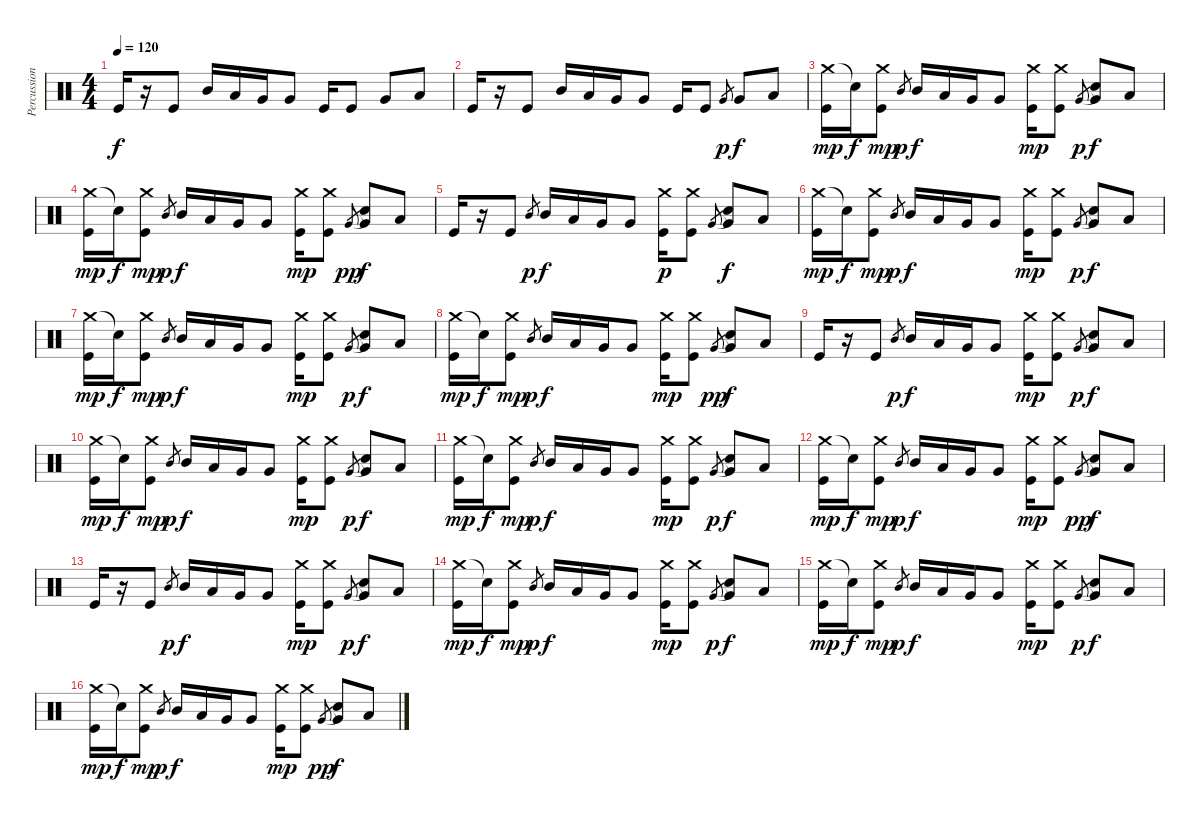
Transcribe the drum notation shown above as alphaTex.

\track ("Percussion" "Percussion") {instrument percussion}
\staff {score}
\articulation defaults
\ts (4 4)
\tempo 120
\clef neutral
\ks c "Kick (hit)".16{dy f}
r.16 "Kick (hit)".8 "Mid Tom (hit)".16 "Low Tom (hit)".16 "Very Low Tom (hit)".16 "Very Low Tom (hit)".8 "Kick (hit)".16 "Kick (hit)".8 "Very Low Tom (hit)".8 "Low Tom (hit)".8 |
"Kick (hit)".16 r.16 "Kick (hit)".8 "Mid Tom (hit)".16 "Low Tom (hit)".16 "Very Low Tom (hit)".16 "Very Low Tom (hit)".8 "Kick (hit)".16 "Kick (hit)".8 "Very Low Tom (hit)".8{gr dy p} "Very Low Tom (hit)".8{dy f} "Low Tom (hit)".8 |
("Crash medium (hit)" "Kick (hit)").16{dy mp} "Snare (hit)"{t}.16{dy f} ("Crash medium (hit)" "Kick (hit)").8{dy mp} "Mid Tom (hit)".8{gr dy p} "Mid Tom (hit)".16{dy f} "Low Tom (hit)".16 "Very Low Tom (hit)".16 "Very Low Tom (hit)".8 ("Crash medium (hit)" "Kick (hit)").16{dy mp} ("Crash medium (hit)" "Kick (hit)").8 "Very Low Tom (hit)".8{gr dy p} ("Snare (hit)"{t} "Very Low Tom (hit)").8{dy f} "Low Tom (hit)".8 |
("Crash medium (hit)" "Kick (hit)").16{dy mp} "Snare (hit)"{t}.16{dy f} ("Crash medium (hit)" "Kick (hit)").8{dy mp} "Mid Tom (hit)".8{gr dy p} "Mid Tom (hit)".16{dy f} "Low Tom (hit)".16 "Very Low Tom (hit)".16 "Very Low Tom (hit)".8 ("Crash medium (hit)" "Kick (hit)").16{dy mp} ("Crash medium (hit)" "Kick (hit)").8 "Very Low Tom (hit)".8{gr dy pp} ("Snare (hit)"{t} "Very Low Tom (hit)").8{dy f} "Low Tom (hit)".8 |
"Kick (hit)".16 r.16 "Kick (hit)".8 "Mid Tom (hit)".8{gr dy p} "Mid Tom (hit)".16{dy f} "Low Tom (hit)".16 "Very Low Tom (hit)".16 "Very Low Tom (hit)".8 ("Crash medium (hit)" "Kick (hit)").16{dy p} ("Crash medium (hit)" "Kick (hit)").8 "Very Low Tom (hit)".8{gr} ("Snare (hit)"{t} "Very Low Tom (hit)").8{dy f} "Low Tom (hit)".8 |
("Crash medium (hit)" "Kick (hit)").16{dy mp} "Snare (hit)"{t}.16{dy f} ("Crash medium (hit)" "Kick (hit)").8{dy mp} "Mid Tom (hit)".8{gr dy p} "Mid Tom (hit)".16{dy f} "Low Tom (hit)".16 "Very Low Tom (hit)".16 "Very Low Tom (hit)".8 ("Crash medium (hit)" "Kick (hit)").16{dy mp} ("Crash medium (hit)" "Kick (hit)").8 "Very Low Tom (hit)".8{gr dy p} ("Snare (hit)"{t} "Very Low Tom (hit)").8{dy f} "Low Tom (hit)".8 |
("Crash medium (hit)" "Kick (hit)").16{dy mp} "Snare (hit)"{t}.16{dy f} ("Crash medium (hit)" "Kick (hit)").8{dy mp} "Mid Tom (hit)".8{gr dy p} "Mid Tom (hit)".16{dy f} "Low Tom (hit)".16 "Very Low Tom (hit)".16 "Very Low Tom (hit)".8 ("Crash medium (hit)" "Kick (hit)").16{dy mp} ("Crash medium (hit)" "Kick (hit)").8 "Very Low Tom (hit)".8{gr dy p} ("Snare (hit)"{t} "Very Low Tom (hit)").8{dy f} "Low Tom (hit)".8 |
("Crash medium (hit)" "Kick (hit)").16{dy mp} "Snare (hit)"{t}.16{dy f} ("Crash medium (hit)" "Kick (hit)").8{dy mp} "Mid Tom (hit)".8{gr dy p} "Mid Tom (hit)".16{dy f} "Low Tom (hit)".16 "Very Low Tom (hit)".16 "Very Low Tom (hit)".8 ("Crash medium (hit)" "Kick (hit)").16{dy mp} ("Crash medium (hit)" "Kick (hit)").8 "Very Low Tom (hit)".8{gr dy pp} ("Snare (hit)"{t} "Very Low Tom (hit)").8{dy f} "Low Tom (hit)".8 |
"Kick (hit)".16 r.16 "Kick (hit)".8 "Mid Tom (hit)".8{gr dy p} "Mid Tom (hit)".16{dy f} "Low Tom (hit)".16 "Very Low Tom (hit)".16 "Very Low Tom (hit)".8 ("Crash medium (hit)" "Kick (hit)").16{dy mp} ("Crash medium (hit)" "Kick (hit)").8 "Very Low Tom (hit)".8{gr dy p} ("Snare (hit)"{t} "Very Low Tom (hit)").8{dy f} "Low Tom (hit)".8 |
("Crash medium (hit)" "Kick (hit)").16{dy mp} "Snare (hit)"{t}.16{dy f} ("Crash medium (hit)" "Kick (hit)").8{dy mp} "Mid Tom (hit)".8{gr dy p} "Mid Tom (hit)".16{dy f} "Low Tom (hit)".16 "Very Low Tom (hit)".16 "Very Low Tom (hit)".8 ("Crash medium (hit)" "Kick (hit)").16{dy mp} ("Crash medium (hit)" "Kick (hit)").8 "Very Low Tom (hit)".8{gr dy p} ("Snare (hit)"{t} "Very Low Tom (hit)").8{dy f} "Low Tom (hit)".8 |
("Crash medium (hit)" "Kick (hit)").16{dy mp} "Snare (hit)"{t}.16{dy f} ("Crash medium (hit)" "Kick (hit)").8{dy mp} "Mid Tom (hit)".8{gr dy p} "Mid Tom (hit)".16{dy f} "Low Tom (hit)".16 "Very Low Tom (hit)".16 "Very Low Tom (hit)".8 ("Crash medium (hit)" "Kick (hit)").16{dy mp} ("Crash medium (hit)" "Kick (hit)").8 "Very Low Tom (hit)".8{gr dy p} ("Snare (hit)"{t} "Very Low Tom (hit)").8{dy f} "Low Tom (hit)".8 |
("Crash medium (hit)" "Kick (hit)").16{dy mp} "Snare (hit)"{t}.16{dy f} ("Crash medium (hit)" "Kick (hit)").8{dy mp} "Mid Tom (hit)".8{gr dy p} "Mid Tom (hit)".16{dy f} "Low Tom (hit)".16 "Very Low Tom (hit)".16 "Very Low Tom (hit)".8 ("Crash medium (hit)" "Kick (hit)").16{dy mp} ("Crash medium (hit)" "Kick (hit)").8 "Very Low Tom (hit)".8{gr dy pp} ("Snare (hit)"{t} "Very Low Tom (hit)").8{dy f} "Low Tom (hit)".8 |
"Kick (hit)".16 r.16 "Kick (hit)".8 "Mid Tom (hit)".8{gr dy p} "Mid Tom (hit)".16{dy f} "Low Tom (hit)".16 "Very Low Tom (hit)".16 "Very Low Tom (hit)".8 ("Crash medium (hit)" "Kick (hit)").16{dy mp} ("Crash medium (hit)" "Kick (hit)").8 "Very Low Tom (hit)".8{gr dy p} ("Snare (hit)"{t} "Very Low Tom (hit)").8{dy f} "Low Tom (hit)".8 |
("Crash medium (hit)" "Kick (hit)").16{dy mp} "Snare (hit)"{t}.16{dy f} ("Crash medium (hit)" "Kick (hit)").8{dy mp} "Mid Tom (hit)".8{gr dy p} "Mid Tom (hit)".16{dy f} "Low Tom (hit)".16 "Very Low Tom (hit)".16 "Very Low Tom (hit)".8 ("Crash medium (hit)" "Kick (hit)").16{dy mp} ("Crash medium (hit)" "Kick (hit)").8 "Very Low Tom (hit)".8{gr dy p} ("Snare (hit)"{t} "Very Low Tom (hit)").8{dy f} "Low Tom (hit)".8 |
("Crash medium (hit)" "Kick (hit)").16{dy mp} "Snare (hit)"{t}.16{dy f} ("Crash medium (hit)" "Kick (hit)").8{dy mp} "Mid Tom (hit)".8{gr dy p} "Mid Tom (hit)".16{dy f} "Low Tom (hit)".16 "Very Low Tom (hit)".16 "Very Low Tom (hit)".8 ("Crash medium (hit)" "Kick (hit)").16{dy mp} ("Crash medium (hit)" "Kick (hit)").8 "Very Low Tom (hit)".8{gr dy p} ("Snare (hit)"{t} "Very Low Tom (hit)").8{dy f} "Low Tom (hit)".8 |
("Crash medium (hit)" "Kick (hit)").16{dy mp} "Snare (hit)"{t}.16{dy f} ("Crash medium (hit)" "Kick (hit)").8{dy mp} "Mid Tom (hit)".8{gr dy p} "Mid Tom (hit)".16{dy f} "Low Tom (hit)".16 "Very Low Tom (hit)".16 "Very Low Tom (hit)".8 ("Crash medium (hit)" "Kick (hit)").16{dy mp} ("Crash medium (hit)" "Kick (hit)").8 "Very Low Tom (hit)".8{gr dy pp} ("Snare (hit)"{t} "Very Low Tom (hit)").8{dy f} "Low Tom (hit)".8
